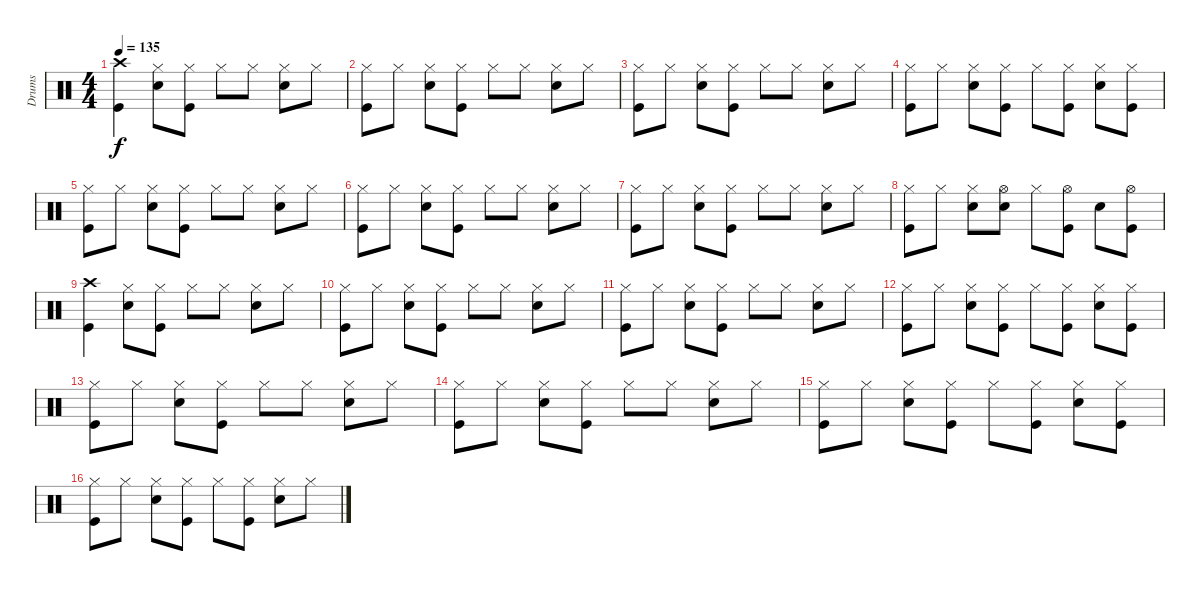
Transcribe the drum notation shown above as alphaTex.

\track ("Drums" "Drums") {instrument percussion}
\staff {score}
\articulation defaults
\ts (4 4)
\tempo 135
\clef neutral
\ks c
("Kick (hit)" "Crash high (hit)").4{dy f} ("Electric Snare (hit)" "Hi-Hat (closed)").8 ("Kick (hit)" "Hi-Hat (closed)").8 "Hi-Hat (closed)".8 "Hi-Hat (closed)".8 ("Electric Snare (hit)" "Hi-Hat (closed)").8 "Hi-Hat (closed)".8 |
("Kick (hit)" "Hi-Hat (closed)").8 "Hi-Hat (closed)".8 ("Electric Snare (hit)" "Hi-Hat (closed)").8 ("Kick (hit)" "Hi-Hat (closed)").8 "Hi-Hat (closed)".8 "Hi-Hat (closed)".8 ("Electric Snare (hit)" "Hi-Hat (closed)").8 "Hi-Hat (closed)".8 |
("Kick (hit)" "Hi-Hat (closed)").8 "Hi-Hat (closed)".8 ("Electric Snare (hit)" "Hi-Hat (closed)").8 ("Kick (hit)" "Hi-Hat (closed)").8 "Hi-Hat (closed)".8 "Hi-Hat (closed)".8 ("Electric Snare (hit)" "Hi-Hat (closed)").8 "Hi-Hat (closed)".8 |
("Kick (hit)" "Hi-Hat (closed)").8 "Hi-Hat (closed)".8 ("Electric Snare (hit)" "Hi-Hat (closed)").8 ("Kick (hit)" "Hi-Hat (closed)").8 "Hi-Hat (closed)".8 ("Kick (hit)" "Hi-Hat (closed)").8 ("Electric Snare (hit)" "Hi-Hat (closed)").8 ("Kick (hit)" "Hi-Hat (closed)").8 |
("Kick (hit)" "Hi-Hat (closed)").8 "Hi-Hat (closed)".8 ("Electric Snare (hit)" "Hi-Hat (closed)").8 ("Kick (hit)" "Hi-Hat (closed)").8 "Hi-Hat (closed)".8 "Hi-Hat (closed)".8 ("Electric Snare (hit)" "Hi-Hat (closed)").8 "Hi-Hat (closed)".8 |
("Kick (hit)" "Hi-Hat (closed)").8 "Hi-Hat (closed)".8 ("Electric Snare (hit)" "Hi-Hat (closed)").8 ("Kick (hit)" "Hi-Hat (closed)").8 "Hi-Hat (closed)".8 "Hi-Hat (closed)".8 ("Electric Snare (hit)" "Hi-Hat (closed)").8 "Hi-Hat (closed)".8 |
("Kick (hit)" "Hi-Hat (closed)").8 "Hi-Hat (closed)".8 ("Electric Snare (hit)" "Hi-Hat (closed)").8 ("Kick (hit)" "Hi-Hat (closed)").8 "Hi-Hat (closed)".8 "Hi-Hat (closed)".8 ("Electric Snare (hit)" "Hi-Hat (closed)").8 "Hi-Hat (closed)".8 |
("Kick (hit)" "Hi-Hat (closed)").8 "Hi-Hat (closed)".8 ("Electric Snare (hit)" "Hi-Hat (closed)").8 ("Electric Snare (hit)" "Hi-Hat (open)").8 "Hi-Hat (closed)".8 ("Kick (hit)" "Hi-Hat (open)").8 "Electric Snare (hit)".8 ("Kick (hit)" "Hi-Hat (open)").8 |
("Kick (hit)" "Crash high (hit)").4 ("Electric Snare (hit)" "Hi-Hat (closed)").8 ("Kick (hit)" "Hi-Hat (closed)").8 "Hi-Hat (closed)".8 "Hi-Hat (closed)".8 ("Electric Snare (hit)" "Hi-Hat (closed)").8 "Hi-Hat (closed)".8 |
("Kick (hit)" "Hi-Hat (closed)").8 "Hi-Hat (closed)".8 ("Electric Snare (hit)" "Hi-Hat (closed)").8 ("Kick (hit)" "Hi-Hat (closed)").8 "Hi-Hat (closed)".8 "Hi-Hat (closed)".8 ("Electric Snare (hit)" "Hi-Hat (closed)").8 "Hi-Hat (closed)".8 |
("Kick (hit)" "Hi-Hat (closed)").8 "Hi-Hat (closed)".8 ("Electric Snare (hit)" "Hi-Hat (closed)").8 ("Kick (hit)" "Hi-Hat (closed)").8 "Hi-Hat (closed)".8 "Hi-Hat (closed)".8 ("Electric Snare (hit)" "Hi-Hat (closed)").8 "Hi-Hat (closed)".8 |
("Kick (hit)" "Hi-Hat (closed)").8 "Hi-Hat (closed)".8 ("Electric Snare (hit)" "Hi-Hat (closed)").8 ("Kick (hit)" "Hi-Hat (closed)").8 "Hi-Hat (closed)".8 ("Kick (hit)" "Hi-Hat (closed)").8 ("Electric Snare (hit)" "Hi-Hat (closed)").8 ("Kick (hit)" "Hi-Hat (closed)").8 |
("Kick (hit)" "Hi-Hat (closed)").8 "Hi-Hat (closed)".8 ("Electric Snare (hit)" "Hi-Hat (closed)").8 ("Kick (hit)" "Hi-Hat (closed)").8 "Hi-Hat (closed)".8 "Hi-Hat (closed)".8 ("Electric Snare (hit)" "Hi-Hat (closed)").8 "Hi-Hat (closed)".8 |
("Kick (hit)" "Hi-Hat (closed)").8 "Hi-Hat (closed)".8 ("Electric Snare (hit)" "Hi-Hat (closed)").8 ("Kick (hit)" "Hi-Hat (closed)").8 "Hi-Hat (closed)".8 "Hi-Hat (closed)".8 ("Electric Snare (hit)" "Hi-Hat (closed)").8 "Hi-Hat (closed)".8 |
("Kick (hit)" "Hi-Hat (closed)").8 "Hi-Hat (closed)".8 ("Electric Snare (hit)" "Hi-Hat (closed)").8 ("Kick (hit)" "Hi-Hat (closed)").8 "Hi-Hat (closed)".8 ("Kick (hit)" "Hi-Hat (closed)").8 ("Electric Snare (hit)" "Hi-Hat (closed)").8 ("Kick (hit)" "Hi-Hat (closed)").8 |
("Kick (hit)" "Hi-Hat (closed)").8 "Hi-Hat (closed)".8 ("Electric Snare (hit)" "Hi-Hat (closed)").8 ("Kick (hit)" "Hi-Hat (closed)").8 "Hi-Hat (closed)".8 ("Kick (hit)" "Hi-Hat (closed)").8 ("Electric Snare (hit)" "Hi-Hat (closed)").8 "Hi-Hat (closed)".8
